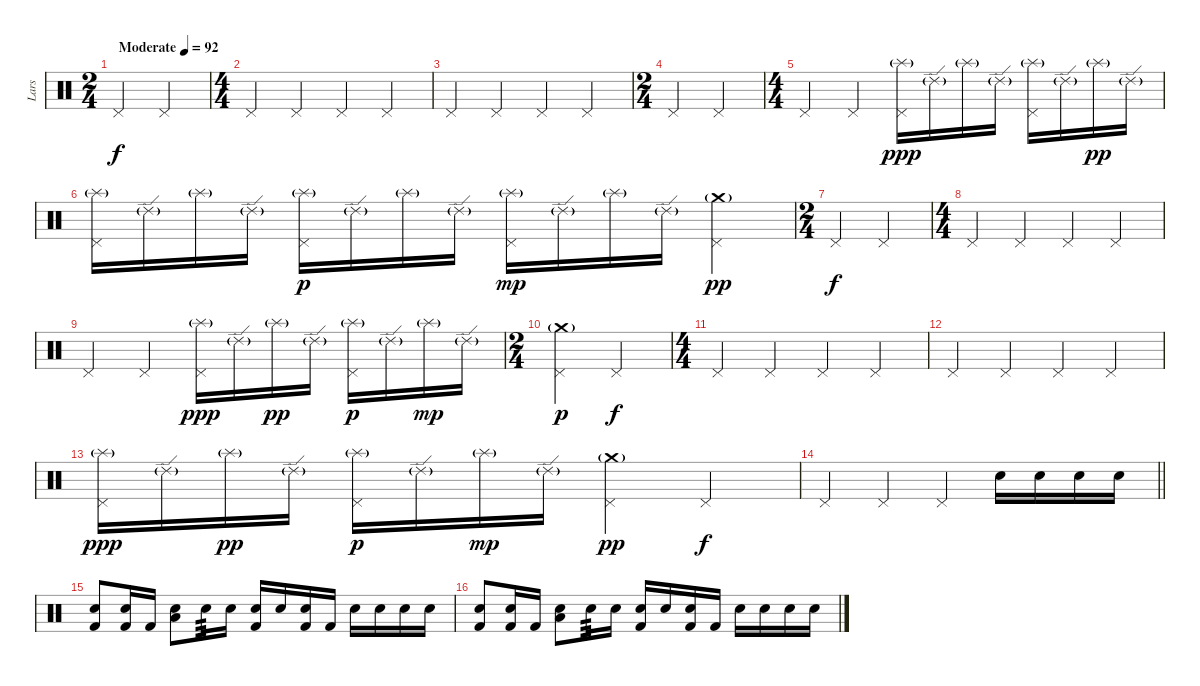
\track ("Lars" "Lars") {instrument percussion}
\staff {score}
\articulation defaults
\ts (2 4)
\tempo (92 "Moderate")
\clef neutral
\ks c "Pedal Hi-Hat (hit)".4{dy f} "Pedal Hi-Hat (hit)".4
|
\ts (4 4)
"Pedal Hi-Hat (hit)".4 "Pedal Hi-Hat (hit)".4 "Pedal Hi-Hat (hit)".4 "Pedal Hi-Hat (hit)".4 |
"Pedal Hi-Hat (hit)".4 "Pedal Hi-Hat (hit)".4 "Pedal Hi-Hat (hit)".4 "Pedal Hi-Hat (hit)".4 |
\ts (2 4)
"Pedal Hi-Hat (hit)".4 "Pedal Hi-Hat (hit)".4 |
\ts (4 4)
"Pedal Hi-Hat (hit)".4 "Pedal Hi-Hat (hit)".4 ("Pedal Hi-Hat (hit)" "Splash (hit)"{g}).16{dy ppp} "Ride (edge) 2"{g}.16 "Splash (hit)"{g}.16 "Ride (edge) 2"{g}.16 ("Pedal Hi-Hat (hit)" "Splash (hit)"{g}).16 "Ride (edge) 2"{g}.16 "Splash (hit)"{g}.16{dy pp} "Ride (edge) 2"{g}.16 |
("Pedal Hi-Hat (hit)" "Splash (hit)"{g}).16 "Ride (edge) 2"{g}.16 "Splash (hit)"{g}.16 "Ride (edge) 2"{g}.16 ("Pedal Hi-Hat (hit)" "Splash (hit)"{g}).16{dy p} "Ride (edge) 2"{g}.16 "Splash (hit)"{g}.16 "Ride (edge) 2"{g}.16 ("Pedal Hi-Hat (hit)" "Splash (hit)"{g}).16{dy mp} "Ride (edge) 2"{g}.16 "Splash (hit)"{g}.16 "Ride (edge) 2"{g}.16 ("Pedal Hi-Hat (hit)" "Crash medium (hit)"{g}).4{dy pp} |
\ts (2 4)
"Pedal Hi-Hat (hit)".4{dy f} "Pedal Hi-Hat (hit)".4 |
\ts (4 4)
"Pedal Hi-Hat (hit)".4 "Pedal Hi-Hat (hit)".4 "Pedal Hi-Hat (hit)".4 "Pedal Hi-Hat (hit)".4 |
"Pedal Hi-Hat (hit)".4 "Pedal Hi-Hat (hit)".4 ("Pedal Hi-Hat (hit)" "Splash (hit)"{g}).16{dy ppp} "Ride (edge) 2"{g}.16 "Splash (hit)"{g}.16{dy pp} "Ride (edge) 2"{g}.16 ("Pedal Hi-Hat (hit)" "Splash (hit)"{g}).16{dy p} "Ride (edge) 2"{g}.16 "Splash (hit)"{g}.16{dy mp} "Ride (edge) 2"{g}.16 |
\ts (2 4)
("Pedal Hi-Hat (hit)" "Crash medium (hit)"{g}).4{dy p} "Pedal Hi-Hat (hit)".4{dy f} |
\ts (4 4)
"Pedal Hi-Hat (hit)".4 "Pedal Hi-Hat (hit)".4 "Pedal Hi-Hat (hit)".4 "Pedal Hi-Hat (hit)".4 |
"Pedal Hi-Hat (hit)".4 "Pedal Hi-Hat (hit)".4 "Pedal Hi-Hat (hit)".4 "Pedal Hi-Hat (hit)".4 |
("Pedal Hi-Hat (hit)" "Splash (hit)"{g}).16{dy ppp} "Ride (edge) 2"{g}.16 "Splash (hit)"{g}.16{dy pp} "Ride (edge) 2"{g}.16 ("Pedal Hi-Hat (hit)" "Splash (hit)"{g}).16{dy p} "Ride (edge) 2"{g}.16 "Splash (hit)"{g}.16{dy mp} "Ride (edge) 2"{g}.16 ("Pedal Hi-Hat (hit)" "Crash medium (hit)"{g}).4{dy pp} "Pedal Hi-Hat (hit)".4{dy f} |
\barLineRight lightlight "Pedal Hi-Hat (hit)".4 "Pedal Hi-Hat (hit)".4 "Pedal Hi-Hat (hit)".4 "Electric Snare (hit)".16 "Electric Snare (hit)".16 "Electric Snare (hit)".16 "Electric Snare (hit)".16
|
\section ("" "")
("Electric Snare (hit)" "Kick (hit) 2").8 ("Electric Snare (hit)" "Kick (hit) 2").16 "Kick (hit) 2".16 ("Electric Snare (hit)" "Low Tom (hit)").8 "Electric Snare (hit)".16{tp 3} "Electric Snare (hit)".16 ("Electric Snare (hit)" "Kick (hit) 2").16 "Electric Snare (hit)".16 ("Electric Snare (hit)" "Kick (hit) 2").16 "Kick (hit) 2".16 "Electric Snare (hit)".16 "Electric Snare (hit)".16 "Electric Snare (hit)".16 "Electric Snare (hit)".16 |
("Electric Snare (hit)" "Kick (hit) 2").8 ("Electric Snare (hit)" "Kick (hit) 2").16 "Kick (hit) 2".16 ("Electric Snare (hit)" "Low Tom (hit)").8 "Electric Snare (hit)".16{tp 3} "Electric Snare (hit)".16 ("Electric Snare (hit)" "Kick (hit) 2").16 "Electric Snare (hit)".16 ("Electric Snare (hit)" "Kick (hit) 2").16 "Kick (hit) 2".16 "Electric Snare (hit)".16 "Electric Snare (hit)".16 "Electric Snare (hit)".16 "Electric Snare (hit)".16
